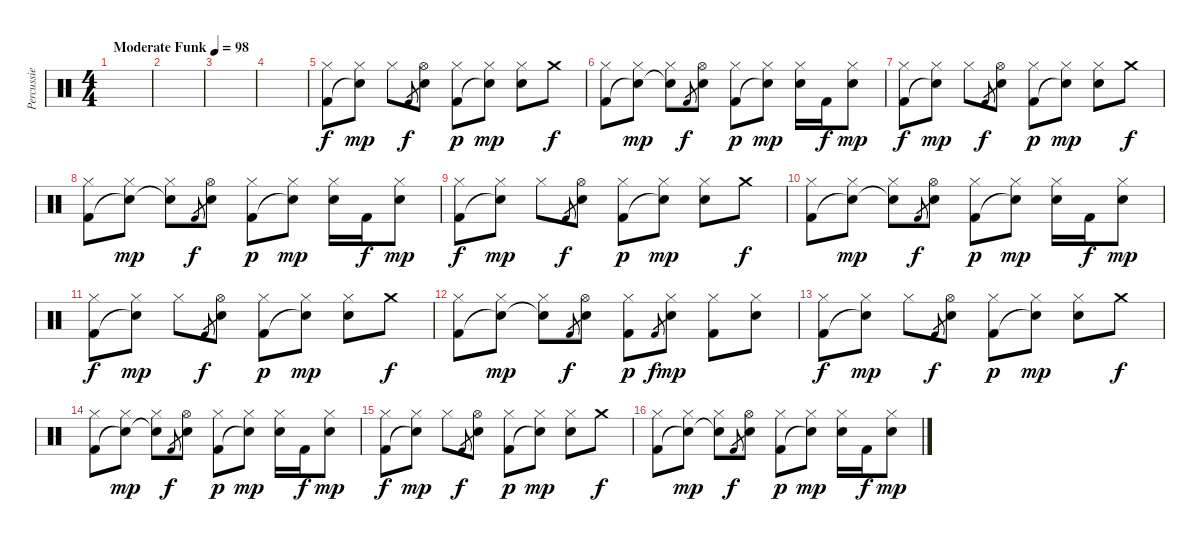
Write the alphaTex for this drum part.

\track ("Percussie" "Percussie") {instrument percussion}
\staff {score}
\articulation defaults
\ts (4 4)
\tempo (98 "Moderate Funk")
\clef neutral
\ks c
|
|
|
|
("Hi-Hat (closed)" "Kick (hit) 2").8 ("Hi-Hat (closed)" "Snare (hit)"{t}).8{dy mp} "Hi-Hat (closed)".8 "Kick (hit) 2".8{gr dy f} ("Hi-Hat (open)" "Electric Snare (hit)").8 ("Hi-Hat (closed)" "Kick (hit) 2").8{dy p} ("Hi-Hat (closed)" "Snare (hit)"{t}).8{dy mp} ("Hi-Hat (closed)" "Electric Snare (hit)").8 "Crash medium (hit)".8{dy f} |
("Hi-Hat (closed)" "Kick (hit) 2").8 ("Hi-Hat (closed)" "Snare (hit)"{t}).8{dy mp} ("Hi-Hat (closed)" "Snare (hit)"{t}).8 "Kick (hit) 2".8{gr dy f} ("Hi-Hat (open)" "Electric Snare (hit)").8 ("Hi-Hat (closed)" "Kick (hit) 2").8{dy p} ("Hi-Hat (closed)" "Snare (hit)"{t}).8{dy mp} ("Hi-Hat (closed)" "Electric Snare (hit)").16 "Kick (hit) 2".16{dy f} ("Hi-Hat (closed)" "Electric Snare (hit)").8{dy mp} |
("Hi-Hat (closed)" "Kick (hit) 2").8{dy f} ("Hi-Hat (closed)" "Snare (hit)"{t}).8{dy mp} "Hi-Hat (closed)".8 "Kick (hit) 2".8{gr dy f} ("Hi-Hat (open)" "Electric Snare (hit)").8 ("Hi-Hat (closed)" "Kick (hit) 2").8{dy p} ("Hi-Hat (closed)" "Snare (hit)"{t}).8{dy mp} ("Hi-Hat (closed)" "Electric Snare (hit)").8 "Crash medium (hit)".8{dy f} |
("Hi-Hat (closed)" "Kick (hit) 2").8 ("Hi-Hat (closed)" "Snare (hit)"{t}).8{dy mp} ("Hi-Hat (closed)" "Snare (hit)"{t}).8 "Kick (hit) 2".8{gr dy f} ("Hi-Hat (open)" "Electric Snare (hit)").8 ("Hi-Hat (closed)" "Kick (hit) 2").8{dy p} ("Hi-Hat (closed)" "Snare (hit)"{t}).8{dy mp} ("Hi-Hat (closed)" "Electric Snare (hit)").16 "Kick (hit) 2".16{dy f} ("Hi-Hat (closed)" "Electric Snare (hit)").8{dy mp} |
("Hi-Hat (closed)" "Kick (hit) 2").8{dy f} ("Hi-Hat (closed)" "Snare (hit)"{t}).8{dy mp} "Hi-Hat (closed)".8 "Kick (hit) 2".8{gr dy f} ("Hi-Hat (open)" "Electric Snare (hit)").8 ("Hi-Hat (closed)" "Kick (hit) 2").8{dy p} ("Hi-Hat (closed)" "Snare (hit)"{t}).8{dy mp} ("Hi-Hat (closed)" "Electric Snare (hit)").8 "Crash medium (hit)".8{dy f} |
("Hi-Hat (closed)" "Kick (hit) 2").8 ("Hi-Hat (closed)" "Snare (hit)"{t}).8{dy mp} ("Hi-Hat (closed)" "Snare (hit)"{t}).8 "Kick (hit) 2".8{gr dy f} ("Hi-Hat (open)" "Electric Snare (hit)").8 ("Hi-Hat (closed)" "Kick (hit) 2").8{dy p} ("Hi-Hat (closed)" "Snare (hit)"{t}).8{dy mp} ("Hi-Hat (closed)" "Electric Snare (hit)").16 "Kick (hit) 2".16{dy f} ("Hi-Hat (closed)" "Electric Snare (hit)").8{dy mp} |
("Hi-Hat (closed)" "Kick (hit) 2").8{dy f} ("Hi-Hat (closed)" "Snare (hit)"{t}).8{dy mp} "Hi-Hat (closed)".8 "Kick (hit) 2".8{gr dy f} ("Hi-Hat (open)" "Electric Snare (hit)").8 ("Hi-Hat (closed)" "Kick (hit) 2").8{dy p} ("Hi-Hat (closed)" "Snare (hit)"{t}).8{dy mp} ("Hi-Hat (closed)" "Electric Snare (hit)").8 "Crash medium (hit)".8{dy f} |
("Hi-Hat (closed)" "Kick (hit) 2").8 ("Hi-Hat (closed)" "Snare (hit)"{t}).8{dy mp} ("Hi-Hat (closed)" "Snare (hit)"{t}).8 "Kick (hit) 2".8{gr dy f} ("Hi-Hat (open)" "Electric Snare (hit)").8 ("Hi-Hat (closed)" "Kick (hit) 2").8{dy p} "Kick (hit) 2".8{gr dy f} ("Hi-Hat (closed)" "Electric Snare (hit)").8{dy mp} ("Hi-Hat (closed)" "Kick (hit) 2").8 ("Hi-Hat (closed)" "Electric Snare (hit)").8 |
("Hi-Hat (closed)" "Kick (hit) 2").8{dy f} ("Hi-Hat (closed)" "Snare (hit)"{t}).8{dy mp} "Hi-Hat (closed)".8 "Kick (hit) 2".8{gr dy f} ("Hi-Hat (open)" "Electric Snare (hit)").8 ("Hi-Hat (closed)" "Kick (hit) 2").8{dy p} ("Hi-Hat (closed)" "Snare (hit)"{t}).8{dy mp} ("Hi-Hat (closed)" "Electric Snare (hit)").8 "Crash medium (hit)".8{dy f} |
("Hi-Hat (closed)" "Kick (hit) 2").8 ("Hi-Hat (closed)" "Snare (hit)"{t}).8{dy mp} ("Hi-Hat (closed)" "Snare (hit)"{t}).8 "Kick (hit) 2".8{gr dy f} ("Hi-Hat (open)" "Electric Snare (hit)").8 ("Hi-Hat (closed)" "Kick (hit) 2").8{dy p} ("Hi-Hat (closed)" "Snare (hit)"{t}).8{dy mp} ("Hi-Hat (closed)" "Electric Snare (hit)").16 "Kick (hit) 2".16{dy f} ("Hi-Hat (closed)" "Electric Snare (hit)").8{dy mp} |
("Hi-Hat (closed)" "Kick (hit) 2").8{dy f} ("Hi-Hat (closed)" "Snare (hit)"{t}).8{dy mp} "Hi-Hat (closed)".8 "Kick (hit) 2".8{gr dy f} ("Hi-Hat (open)" "Electric Snare (hit)").8 ("Hi-Hat (closed)" "Kick (hit) 2").8{dy p} ("Hi-Hat (closed)" "Snare (hit)"{t}).8{dy mp} ("Hi-Hat (closed)" "Electric Snare (hit)").8 "Crash medium (hit)".8{dy f} |
("Hi-Hat (closed)" "Kick (hit) 2").8 ("Hi-Hat (closed)" "Snare (hit)"{t}).8{dy mp} ("Hi-Hat (closed)" "Snare (hit)"{t}).8 "Kick (hit) 2".8{gr dy f} ("Hi-Hat (open)" "Electric Snare (hit)").8 ("Hi-Hat (closed)" "Kick (hit) 2").8{dy p} ("Hi-Hat (closed)" "Snare (hit)"{t}).8{dy mp} ("Hi-Hat (closed)" "Electric Snare (hit)").16 "Kick (hit) 2".16{dy f} ("Hi-Hat (closed)" "Electric Snare (hit)").8{dy mp}
